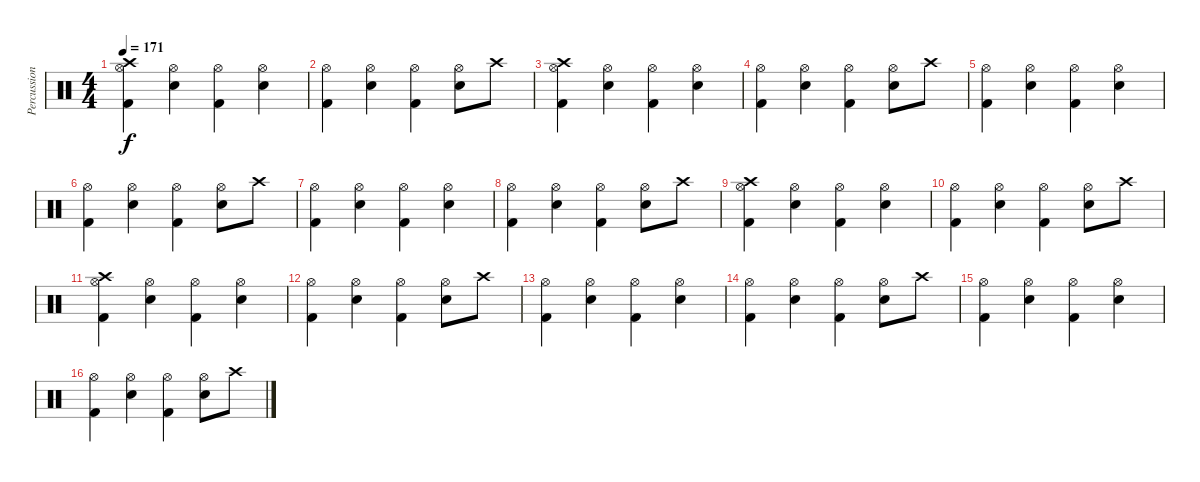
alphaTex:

\track ("Percussions" "Percussion") {instrument percussion}
\staff {score}
\articulation defaults
\ts (4 4)
\tempo 171
\clef neutral
\ks c
("Crash high (hit)" "Hi-Hat (open)" "Kick (hit) 2").4{dy f} ("Hi-Hat (open)" "Electric Snare (hit)").4 ("Hi-Hat (open)" "Kick (hit) 2").4 ("Hi-Hat (open)" "Electric Snare (hit)").4 |
("Hi-Hat (open)" "Kick (hit) 2").4 ("Hi-Hat (open)" "Electric Snare (hit)").4 ("Hi-Hat (open)" "Kick (hit) 2").4 ("Hi-Hat (open)" "Electric Snare (hit)").8 "Crash high (hit)".8 |
("Crash high (hit)" "Hi-Hat (open)" "Kick (hit) 2").4 ("Hi-Hat (open)" "Electric Snare (hit)").4 ("Hi-Hat (open)" "Kick (hit) 2").4 ("Hi-Hat (open)" "Electric Snare (hit)").4 |
("Hi-Hat (open)" "Kick (hit) 2").4 ("Hi-Hat (open)" "Electric Snare (hit)").4 ("Hi-Hat (open)" "Kick (hit) 2").4 ("Hi-Hat (open)" "Electric Snare (hit)").8 "Crash high (hit)".8 |
("Hi-Hat (open)" "Kick (hit) 2").4 ("Hi-Hat (open)" "Electric Snare (hit)").4 ("Hi-Hat (open)" "Kick (hit) 2").4 ("Hi-Hat (open)" "Electric Snare (hit)").4 |
("Hi-Hat (open)" "Kick (hit) 2").4 ("Hi-Hat (open)" "Electric Snare (hit)").4 ("Hi-Hat (open)" "Kick (hit) 2").4 ("Hi-Hat (open)" "Electric Snare (hit)").8 "Crash high (hit)".8 |
("Hi-Hat (open)" "Kick (hit) 2").4 ("Hi-Hat (open)" "Electric Snare (hit)").4 ("Hi-Hat (open)" "Kick (hit) 2").4 ("Hi-Hat (open)" "Electric Snare (hit)").4 |
("Hi-Hat (open)" "Kick (hit) 2").4 ("Hi-Hat (open)" "Electric Snare (hit)").4 ("Hi-Hat (open)" "Kick (hit) 2").4 ("Hi-Hat (open)" "Electric Snare (hit)").8 "Crash high (hit)".8 |
("Crash high (hit)" "Hi-Hat (open)" "Kick (hit) 2").4 ("Hi-Hat (open)" "Electric Snare (hit)").4 ("Hi-Hat (open)" "Kick (hit) 2").4 ("Hi-Hat (open)" "Electric Snare (hit)").4 |
("Hi-Hat (open)" "Kick (hit) 2").4 ("Hi-Hat (open)" "Electric Snare (hit)").4 ("Hi-Hat (open)" "Kick (hit) 2").4 ("Hi-Hat (open)" "Electric Snare (hit)").8 "Crash high (hit)".8 |
("Crash high (hit)" "Hi-Hat (open)" "Kick (hit) 2").4 ("Hi-Hat (open)" "Electric Snare (hit)").4 ("Hi-Hat (open)" "Kick (hit) 2").4 ("Hi-Hat (open)" "Electric Snare (hit)").4 |
("Hi-Hat (open)" "Kick (hit) 2").4 ("Hi-Hat (open)" "Electric Snare (hit)").4 ("Hi-Hat (open)" "Kick (hit) 2").4 ("Hi-Hat (open)" "Electric Snare (hit)").8 "Crash high (hit)".8 |
("Hi-Hat (open)" "Kick (hit) 2").4 ("Hi-Hat (open)" "Electric Snare (hit)").4 ("Hi-Hat (open)" "Kick (hit) 2").4 ("Hi-Hat (open)" "Electric Snare (hit)").4 |
("Hi-Hat (open)" "Kick (hit) 2").4 ("Hi-Hat (open)" "Electric Snare (hit)").4 ("Hi-Hat (open)" "Kick (hit) 2").4 ("Hi-Hat (open)" "Electric Snare (hit)").8 "Crash high (hit)".8 |
("Hi-Hat (open)" "Kick (hit) 2").4 ("Hi-Hat (open)" "Electric Snare (hit)").4 ("Hi-Hat (open)" "Kick (hit) 2").4 ("Hi-Hat (open)" "Electric Snare (hit)").4 |
("Hi-Hat (open)" "Kick (hit) 2").4 ("Hi-Hat (open)" "Electric Snare (hit)").4 ("Hi-Hat (open)" "Kick (hit) 2").4 ("Hi-Hat (open)" "Electric Snare (hit)").8 "Crash high (hit)".8
